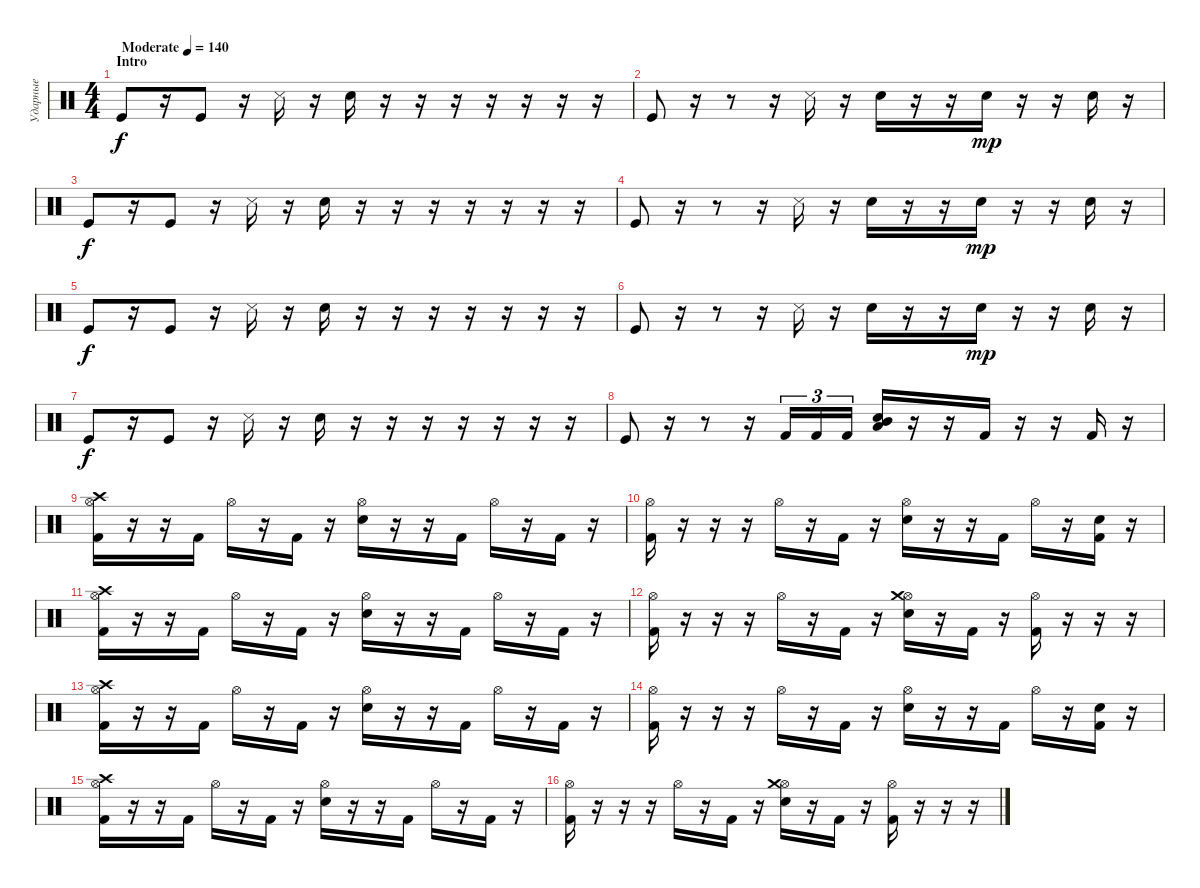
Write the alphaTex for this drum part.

\track ("Ударные" "Ударные") {instrument percussion}
\staff {score}
\articulation defaults
\ts (4 4)
\section ("" "Intro")
\tempo (140 "Moderate")
\clef neutral
\ks c "Kick (hit)".8{dy f}
r.16 "Kick (hit)".8 r.16 "Metronome (hit)".16 r.16 "Electric Snare (hit)".16 r.16 r.16 r.16 r.16 r.16 r.16 r.16 |
"Kick (hit)".8 r.16 r.8 r.16 "Metronome (hit)".16 r.16 "Electric Snare (hit)".16 r.16 r.16 "Electric Snare (hit)".16{dy mp} r.16 r.16 "Electric Snare (hit)".16 r.16 |
"Kick (hit)".8{dy f} r.16 "Kick (hit)".8 r.16 "Metronome (hit)".16 r.16 "Electric Snare (hit)".16 r.16 r.16 r.16 r.16 r.16 r.16 r.16 |
"Kick (hit)".8 r.16 r.8 r.16 "Metronome (hit)".16 r.16 "Electric Snare (hit)".16 r.16 r.16 "Electric Snare (hit)".16{dy mp} r.16 r.16 "Electric Snare (hit)".16 r.16 |
"Kick (hit)".8{dy f} r.16 "Kick (hit)".8 r.16 "Metronome (hit)".16 r.16 "Electric Snare (hit)".16 r.16 r.16 r.16 r.16 r.16 r.16 r.16 |
"Kick (hit)".8 r.16 r.8 r.16 "Metronome (hit)".16 r.16 "Electric Snare (hit)".16 r.16 r.16 "Electric Snare (hit)".16{dy mp} r.16 r.16 "Electric Snare (hit)".16 r.16 |
"Kick (hit)".8{dy f} r.16 "Kick (hit)".8 r.16 "Metronome (hit)".16 r.16 "Electric Snare (hit)".16 r.16 r.16 r.16 r.16 r.16 r.16 r.16 |
"Kick (hit)".8 r.16 r.8 r.16 "Kick (hit) 2".16{tu (3 2)} "Kick (hit) 2".16{tu (3 2)} "Kick (hit) 2".16{tu (3 2)} ("Low Tom (hit)" "Mid Tom (hit)" "Snare (hit) 2").16 r.16 r.16 "Kick (hit) 2".16 r.16 r.16 "Kick (hit) 2".16 r.16 |
("Hi-Hat (open)" "Crash high (hit)" "Kick (hit) 2").16 r.16 r.16 "Kick (hit) 2".16 "Hi-Hat (open)".16 r.16 "Kick (hit) 2".16 r.16 ("Hi-Hat (open)" "Snare (hit) 2").16 r.16 r.16 "Kick (hit) 2".16 "Hi-Hat (open)".16 r.16 "Kick (hit) 2".16 r.16 |
("Hi-Hat (open)" "Kick (hit) 2").16 r.16 r.16 r.16 "Hi-Hat (open)".16 r.16 "Kick (hit) 2".16 r.16 ("Hi-Hat (open)" "Snare (hit) 2").16 r.16 r.16 "Kick (hit) 2".16 "Hi-Hat (open)".16 r.16 ("Snare (hit) 2" "Kick (hit) 2").16 r.16 |
("Hi-Hat (open)" "Crash high (hit)" "Kick (hit) 2").16 r.16 r.16 "Kick (hit) 2".16 "Hi-Hat (open)".16 r.16 "Kick (hit) 2".16 r.16 ("Hi-Hat (open)" "Snare (hit) 2").16 r.16 r.16 "Kick (hit) 2".16 "Hi-Hat (open)".16 r.16 "Kick (hit) 2".16 r.16 |
("Hi-Hat (open)" "Kick (hit) 2").16 r.16 r.16 r.16 "Hi-Hat (open)".16 r.16 "Kick (hit) 2".16 r.16 ("Hi-Hat (open)" "Crash medium (hit)" "Snare (hit) 2").16 r.16 "Kick (hit) 2".16 r.16 ("Hi-Hat (open)" "Kick (hit) 2").16 r.16 r.16 r.16 |
("Hi-Hat (open)" "Crash high (hit)" "Kick (hit) 2").16 r.16 r.16 "Kick (hit) 2".16 "Hi-Hat (open)".16 r.16 "Kick (hit) 2".16 r.16 ("Hi-Hat (open)" "Snare (hit) 2").16 r.16 r.16 "Kick (hit) 2".16 "Hi-Hat (open)".16 r.16 "Kick (hit) 2".16 r.16 |
("Hi-Hat (open)" "Kick (hit) 2").16 r.16 r.16 r.16 "Hi-Hat (open)".16 r.16 "Kick (hit) 2".16 r.16 ("Hi-Hat (open)" "Snare (hit) 2").16 r.16 r.16 "Kick (hit) 2".16 "Hi-Hat (open)".16 r.16 ("Snare (hit) 2" "Kick (hit) 2").16 r.16 |
("Hi-Hat (open)" "Crash high (hit)" "Kick (hit) 2").16 r.16 r.16 "Kick (hit) 2".16 "Hi-Hat (open)".16 r.16 "Kick (hit) 2".16 r.16 ("Hi-Hat (open)" "Snare (hit) 2").16 r.16 r.16 "Kick (hit) 2".16 "Hi-Hat (open)".16 r.16 "Kick (hit) 2".16 r.16 |
("Hi-Hat (open)" "Kick (hit) 2").16 r.16 r.16 r.16 "Hi-Hat (open)".16 r.16 "Kick (hit) 2".16 r.16 ("Hi-Hat (open)" "Crash medium (hit)" "Snare (hit) 2").16 r.16 "Kick (hit) 2".16 r.16 ("Hi-Hat (open)" "Kick (hit) 2").16 r.16 r.16 r.16
